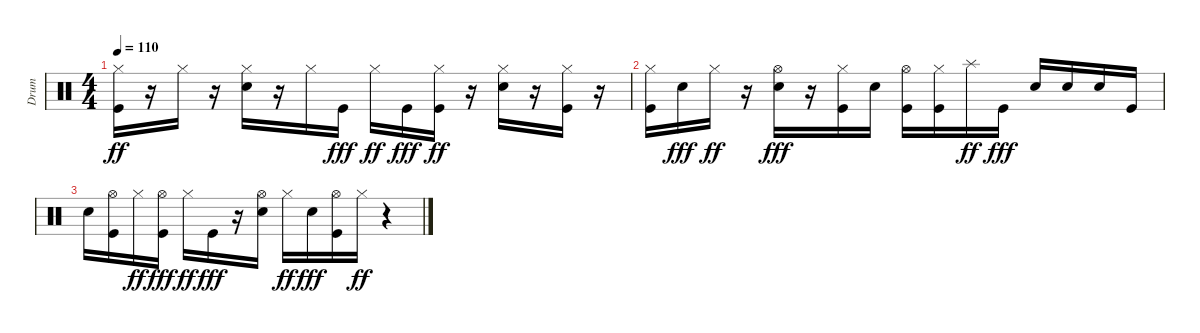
\track ("Drum" "Drum") {instrument percussion}
\staff {score}
\articulation defaults
\ts (4 4)
\tempo 110
\clef neutral
\ks c
("Kick (hit)" "Hi-Hat (closed)").16{dy ff} r.16 "Hi-Hat (closed)".16 r.16 ("Electric Snare (hit)" "Hi-Hat (closed)").16 r.16 "Hi-Hat (closed)".16 "Kick (hit)".16{dy fff} "Hi-Hat (closed)".16{dy ff} "Kick (hit)".16{dy fff} ("Kick (hit)" "Hi-Hat (closed)").16{dy ff} r.16 ("Electric Snare (hit)" "Hi-Hat (closed)").16 r.16 ("Kick (hit)" "Hi-Hat (closed)").16 r.16 |
("Kick (hit)" "Hi-Hat (closed)").16 "Electric Snare (hit)".16{dy fff} "Hi-Hat (closed)".16{dy ff} r.16 ("Hi-Hat (open)" "Electric Snare (hit)").16{dy fff} r.16 ("Hi-Hat (closed)" "Kick (hit)").16 "Electric Snare (hit)".16 ("Hi-Hat (open)" "Kick (hit)").16 ("Hi-Hat (closed)" "Kick (hit)").16 "Splash (hit)".16{dy ff} "Kick (hit)".16{dy fff} "Electric Snare (hit)".16 "Electric Snare (hit)".16 "Electric Snare (hit)".16 "Kick (hit)".16 |
"Electric Snare (hit)".16 ("Hi-Hat (open)" "Kick (hit)").16 "Hi-Hat (closed)".16{dy ff} ("Hi-Hat (open)" "Kick (hit)").16{dy fff} "Hi-Hat (closed)".16{dy ff} "Kick (hit)".16{dy fff} r.16 ("Hi-Hat (open)" "Electric Snare (hit)").16 "Hi-Hat (closed)".16{dy ff} "Electric Snare (hit)".16{dy fff} ("Hi-Hat (open)" "Kick (hit)").16 "Hi-Hat (closed)".16{dy ff} r.4
